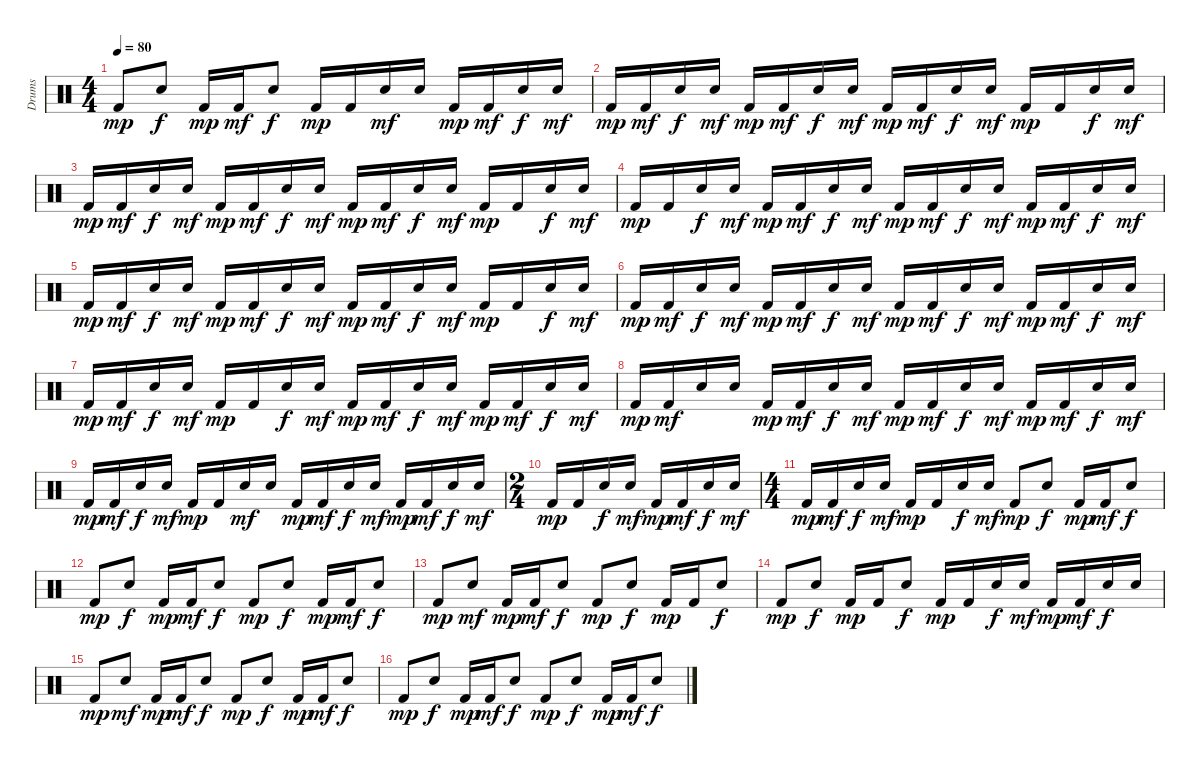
\track ("Drums" "Drums") {instrument percussion}
\staff {score}
\articulation defaults
\ts (4 4)
\tempo 80
\clef neutral
\ks c "Kick (hit) 2".8{dy mp} "Snare (hit) 2".8{dy f} "Kick (hit) 2".16{dy mp} "Kick (hit) 2".16{dy mf} "Snare (hit) 2".8{dy f} "Kick (hit) 2".16{dy mp} "Kick (hit) 2".16 "Snare (hit) 2".16{dy mf} "Snare (hit) 2".16 "Kick (hit) 2".16{dy mp} "Kick (hit) 2".16{dy mf} "Snare (hit) 2".16{dy f} "Snare (hit) 2".16{dy mf}
|
"Kick (hit) 2".16{dy mp} "Kick (hit) 2".16{dy mf} "Snare (hit) 2".16{dy f} "Snare (hit) 2".16{dy mf} "Kick (hit) 2".16{dy mp} "Kick (hit) 2".16{dy mf} "Snare (hit) 2".16{dy f} "Snare (hit) 2".16{dy mf} "Kick (hit) 2".16{dy mp} "Kick (hit) 2".16{dy mf} "Snare (hit) 2".16{dy f} "Snare (hit) 2".16{dy mf} "Kick (hit) 2".16{dy mp} "Kick (hit) 2".16 "Snare (hit) 2".16{dy f} "Snare (hit) 2".16{dy mf} |
"Kick (hit) 2".16{dy mp} "Kick (hit) 2".16{dy mf} "Snare (hit) 2".16{dy f} "Snare (hit) 2".16{dy mf} "Kick (hit) 2".16{dy mp} "Kick (hit) 2".16{dy mf} "Snare (hit) 2".16{dy f} "Snare (hit) 2".16{dy mf} "Kick (hit) 2".16{dy mp} "Kick (hit) 2".16{dy mf} "Snare (hit) 2".16{dy f} "Snare (hit) 2".16{dy mf} "Kick (hit) 2".16{dy mp} "Kick (hit) 2".16 "Snare (hit) 2".16{dy f} "Snare (hit) 2".16{dy mf} |
"Kick (hit) 2".16{dy mp} "Kick (hit) 2".16 "Snare (hit) 2".16{dy f} "Snare (hit) 2".16{dy mf} "Kick (hit) 2".16{dy mp} "Kick (hit) 2".16{dy mf} "Snare (hit) 2".16{dy f} "Snare (hit) 2".16{dy mf} "Kick (hit) 2".16{dy mp} "Kick (hit) 2".16{dy mf} "Snare (hit) 2".16{dy f} "Snare (hit) 2".16{dy mf} "Kick (hit) 2".16{dy mp} "Kick (hit) 2".16{dy mf} "Snare (hit) 2".16{dy f} "Snare (hit) 2".16{dy mf} |
"Kick (hit) 2".16{dy mp} "Kick (hit) 2".16{dy mf} "Snare (hit) 2".16{dy f} "Snare (hit) 2".16{dy mf} "Kick (hit) 2".16{dy mp} "Kick (hit) 2".16{dy mf} "Snare (hit) 2".16{dy f} "Snare (hit) 2".16{dy mf} "Kick (hit) 2".16{dy mp} "Kick (hit) 2".16{dy mf} "Snare (hit) 2".16{dy f} "Snare (hit) 2".16{dy mf} "Kick (hit) 2".16{dy mp} "Kick (hit) 2".16 "Snare (hit) 2".16{dy f} "Snare (hit) 2".16{dy mf} |
"Kick (hit) 2".16{dy mp} "Kick (hit) 2".16{dy mf} "Snare (hit) 2".16{dy f} "Snare (hit) 2".16{dy mf} "Kick (hit) 2".16{dy mp} "Kick (hit) 2".16{dy mf} "Snare (hit) 2".16{dy f} "Snare (hit) 2".16{dy mf} "Kick (hit) 2".16{dy mp} "Kick (hit) 2".16{dy mf} "Snare (hit) 2".16{dy f} "Snare (hit) 2".16{dy mf} "Kick (hit) 2".16{dy mp} "Kick (hit) 2".16{dy mf} "Snare (hit) 2".16{dy f} "Snare (hit) 2".16{dy mf} |
"Kick (hit) 2".16{dy mp} "Kick (hit) 2".16{dy mf} "Snare (hit) 2".16{dy f} "Snare (hit) 2".16{dy mf} "Kick (hit) 2".16{dy mp} "Kick (hit) 2".16 "Snare (hit) 2".16{dy f} "Snare (hit) 2".16{dy mf} "Kick (hit) 2".16{dy mp} "Kick (hit) 2".16{dy mf} "Snare (hit) 2".16{dy f} "Snare (hit) 2".16{dy mf} "Kick (hit) 2".16{dy mp} "Kick (hit) 2".16{dy mf} "Snare (hit) 2".16{dy f} "Snare (hit) 2".16{dy mf} |
"Kick (hit) 2".16{dy mp} "Kick (hit) 2".16{dy mf} "Snare (hit) 2".16 "Snare (hit) 2".16 "Kick (hit) 2".16{dy mp} "Kick (hit) 2".16{dy mf} "Snare (hit) 2".16{dy f} "Snare (hit) 2".16{dy mf} "Kick (hit) 2".16{dy mp} "Kick (hit) 2".16{dy mf} "Snare (hit) 2".16{dy f} "Snare (hit) 2".16{dy mf} "Kick (hit) 2".16{dy mp} "Kick (hit) 2".16{dy mf} "Snare (hit) 2".16{dy f} "Snare (hit) 2".16{dy mf} |
"Kick (hit) 2".16{dy mp} "Kick (hit) 2".16{dy mf} "Snare (hit) 2".16{dy f} "Snare (hit) 2".16{dy mf} "Kick (hit) 2".16{dy mp} "Kick (hit) 2".16 "Snare (hit) 2".16{dy mf} "Snare (hit) 2".16 "Kick (hit) 2".16{dy mp} "Kick (hit) 2".16{dy mf} "Snare (hit) 2".16{dy f} "Snare (hit) 2".16{dy mf} "Kick (hit) 2".16{dy mp} "Kick (hit) 2".16{dy mf} "Snare (hit) 2".16{dy f} "Snare (hit) 2".16{dy mf} |
\ts (2 4)
"Kick (hit) 2".16{dy mp} "Kick (hit) 2".16 "Snare (hit) 2".16{dy f} "Snare (hit) 2".16{dy mf} "Kick (hit) 2".16{dy mp} "Kick (hit) 2".16{dy mf} "Snare (hit) 2".16{dy f} "Snare (hit) 2".16{dy mf} |
\ts (4 4)
"Kick (hit) 2".16{dy mp} "Kick (hit) 2".16{dy mf} "Snare (hit) 2".16{dy f} "Snare (hit) 2".16{dy mf} "Kick (hit) 2".16{dy mp} "Kick (hit) 2".16 "Snare (hit) 2".16{dy f} "Snare (hit) 2".16{dy mf} "Kick (hit) 2".8{dy mp} "Snare (hit) 2".8{dy f} "Kick (hit) 2".16{dy mp} "Kick (hit) 2".16{dy mf} "Snare (hit) 2".8{dy f} |
"Kick (hit) 2".8{dy mp} "Snare (hit) 2".8{dy f} "Kick (hit) 2".16{dy mp} "Kick (hit) 2".16{dy mf} "Snare (hit) 2".8{dy f} "Kick (hit) 2".8{dy mp} "Snare (hit) 2".8{dy f} "Kick (hit) 2".16{dy mp} "Kick (hit) 2".16{dy mf} "Snare (hit) 2".8{dy f} |
"Kick (hit) 2".8{dy mp} "Snare (hit) 2".8{dy mf} "Kick (hit) 2".16{dy mp} "Kick (hit) 2".16{dy mf} "Snare (hit) 2".8{dy f} "Kick (hit) 2".8{dy mp} "Snare (hit) 2".8{dy f} "Kick (hit) 2".16{dy mp} "Kick (hit) 2".16 "Snare (hit) 2".8{dy f} |
"Kick (hit) 2".8{dy mp} "Snare (hit) 2".8{dy f} "Kick (hit) 2".16{dy mp} "Kick (hit) 2".16 "Snare (hit) 2".8{dy f} "Kick (hit) 2".16{dy mp} "Kick (hit) 2".16 "Snare (hit) 2".16{dy f} "Snare (hit) 2".16{dy mf} "Kick (hit) 2".16{dy mp} "Kick (hit) 2".16{dy mf} "Snare (hit) 2".16{dy f} "Snare (hit) 2".16 |
"Kick (hit) 2".8{dy mp} "Snare (hit) 2".8{dy mf} "Kick (hit) 2".16{dy mp} "Kick (hit) 2".16{dy mf} "Snare (hit) 2".8{dy f} "Kick (hit) 2".8{dy mp} "Snare (hit) 2".8{dy f} "Kick (hit) 2".16{dy mp} "Kick (hit) 2".16{dy mf} "Snare (hit) 2".8{dy f} |
"Kick (hit) 2".8{dy mp} "Snare (hit) 2".8{dy f} "Kick (hit) 2".16{dy mp} "Kick (hit) 2".16{dy mf} "Snare (hit) 2".8{dy f} "Kick (hit) 2".8{dy mp} "Snare (hit) 2".8{dy f} "Kick (hit) 2".16{dy mp} "Kick (hit) 2".16{dy mf} "Snare (hit) 2".8{dy f}
